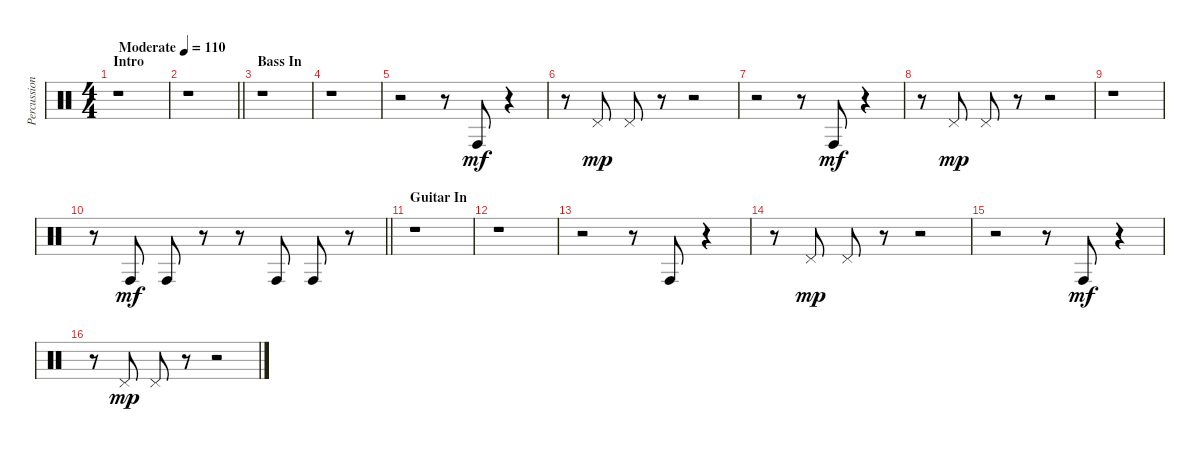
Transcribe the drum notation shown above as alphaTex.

\track ("Percussion" "Percussion") {instrument percussion}
\staff {score}
\articulation defaults
\ts (4 4)
\section ("" "Intro")
\tempo (110 "Moderate")
\clef neutral
\ks c
r.1{dy mf balance 15} |
\barLineRight lightlight
r.1 |
\section ("" "Bass In")
r.1 |
r.1 |
r.2 r.8{balance 1} "Conga high (hit)".8 r.4 |
r.8{balance 15} "Pedal Hi-Hat (hit)".8{dy mp} "Pedal Hi-Hat (hit)".8 r.8 r.2 |
r.2 r.8{balance 1} "Conga high (hit)".8{dy mf} r.4 |
r.8{balance 15} "Pedal Hi-Hat (hit)".8{dy mp} "Pedal Hi-Hat (hit)".8 r.8 r.2 |
r.1 |
\barLineRight lightlight
r.8{balance 1} "Conga high (hit)".8{dy mf} "Conga high (hit)".8 r.8 r.8 "Conga high (hit)".8 "Conga high (hit)".8 r.8 |
\section ("" "Guitar In")
r.1 |
r.1 |
r.2 r.8{balance 1} "Conga high (hit)".8 r.4 |
r.8{balance 15} "Pedal Hi-Hat (hit)".8{dy mp} "Pedal Hi-Hat (hit)".8 r.8 r.2 |
r.2 r.8{balance 1} "Conga high (hit)".8{dy mf} r.4 |
r.8{balance 15} "Pedal Hi-Hat (hit)".8{dy mp} "Pedal Hi-Hat (hit)".8 r.8 r.2
